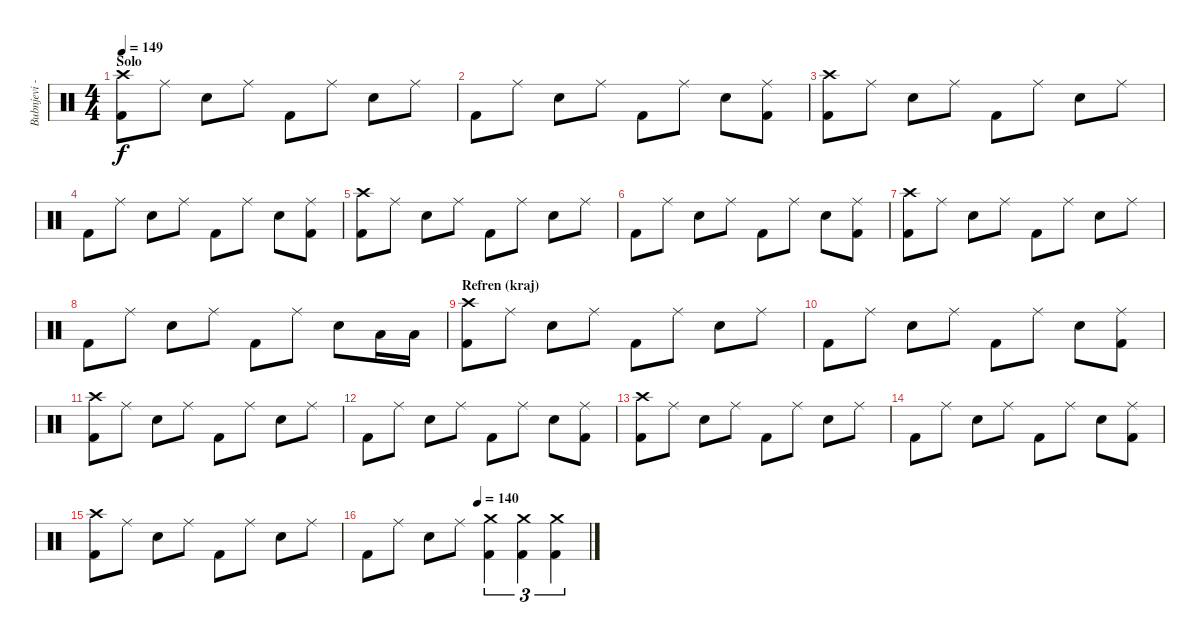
\track ("Bubnjevi - Vladan Cvetkovic" "Bubnjevi -") {instrument percussion}
\staff {score}
\articulation defaults
\ts (4 4)
\section ("" "Solo")
\tempo 149
\clef neutral
\ks c
("Crash high (hit)" "Kick (hit) 2").8{dy f} "Ride (middle)".8 "Electric Snare (hit)".8 "Ride (middle)".8 "Kick (hit) 2".8 "Ride (middle)".8 "Electric Snare (hit)".8 "Ride (middle)".8 |
"Kick (hit) 2".8 "Ride (middle)".8 "Electric Snare (hit)".8 "Ride (middle)".8 "Kick (hit) 2".8 "Ride (middle)".8 "Electric Snare (hit)".8 ("Ride (middle)" "Kick (hit) 2").8 |
("Crash high (hit)" "Kick (hit) 2").8 "Ride (middle)".8 "Electric Snare (hit)".8 "Ride (middle)".8 "Kick (hit) 2".8 "Ride (middle)".8 "Electric Snare (hit)".8 "Ride (middle)".8 |
"Kick (hit) 2".8 "Ride (middle)".8 "Electric Snare (hit)".8 "Ride (middle)".8 "Kick (hit) 2".8 "Ride (middle)".8 "Electric Snare (hit)".8 ("Ride (middle)" "Kick (hit) 2").8 |
("Crash high (hit)" "Kick (hit) 2").8 "Ride (middle)".8 "Electric Snare (hit)".8 "Ride (middle)".8 "Kick (hit) 2".8 "Ride (middle)".8 "Electric Snare (hit)".8 "Ride (middle)".8 |
"Kick (hit) 2".8 "Ride (middle)".8 "Electric Snare (hit)".8 "Ride (middle)".8 "Kick (hit) 2".8 "Ride (middle)".8 "Electric Snare (hit)".8 ("Ride (middle)" "Kick (hit) 2").8 |
("Crash high (hit)" "Kick (hit) 2").8 "Ride (middle)".8 "Electric Snare (hit)".8 "Ride (middle)".8 "Kick (hit) 2".8 "Ride (middle)".8 "Electric Snare (hit)".8 "Ride (middle)".8 |
"Kick (hit) 2".8 "Ride (middle)".8 "Electric Snare (hit)".8 "Ride (middle)".8 "Kick (hit) 2".8 "Ride (middle)".8 "Electric Snare (hit)".8 "Low Tom (hit)".16 "Low Tom (hit)".16 |
\section ("" "Refren (kraj)")
("Crash high (hit)" "Kick (hit) 2").8 "Ride (middle)".8 "Electric Snare (hit)".8 "Ride (middle)".8 "Kick (hit) 2".8 "Ride (middle)".8 "Electric Snare (hit)".8 "Ride (middle)".8 |
"Kick (hit) 2".8 "Ride (middle)".8 "Electric Snare (hit)".8 "Ride (middle)".8 "Kick (hit) 2".8 "Ride (middle)".8 "Electric Snare (hit)".8 ("Ride (middle)" "Kick (hit) 2").8 |
("Crash high (hit)" "Kick (hit) 2").8 "Ride (middle)".8 "Electric Snare (hit)".8 "Ride (middle)".8 "Kick (hit) 2".8 "Ride (middle)".8 "Electric Snare (hit)".8 "Ride (middle)".8 |
"Kick (hit) 2".8 "Ride (middle)".8 "Electric Snare (hit)".8 "Ride (middle)".8 "Kick (hit) 2".8 "Ride (middle)".8 "Electric Snare (hit)".8 ("Ride (middle)" "Kick (hit) 2").8 |
("Crash high (hit)" "Kick (hit) 2").8 "Ride (middle)".8 "Electric Snare (hit)".8 "Ride (middle)".8 "Kick (hit) 2".8 "Ride (middle)".8 "Electric Snare (hit)".8 "Ride (middle)".8 |
"Kick (hit) 2".8 "Ride (middle)".8 "Electric Snare (hit)".8 "Ride (middle)".8 "Kick (hit) 2".8 "Ride (middle)".8 "Electric Snare (hit)".8 ("Ride (middle)" "Kick (hit) 2").8 |
("Crash high (hit)" "Kick (hit) 2").8 "Ride (middle)".8 "Electric Snare (hit)".8 "Ride (middle)".8 "Kick (hit) 2".8 "Ride (middle)".8 "Electric Snare (hit)".8 "Ride (middle)".8 |
\tempo (140 0.5)
"Kick (hit) 2".8 "Ride (middle)".8 "Electric Snare (hit)".8 "Ride (middle)".8 ("Crash medium (hit)" "Kick (hit) 2").4{tu (3 2)} ("Crash medium (hit)" "Kick (hit) 2").4{tu (3 2)} ("Crash medium (hit)" "Kick (hit) 2").4{tu (3 2)}
